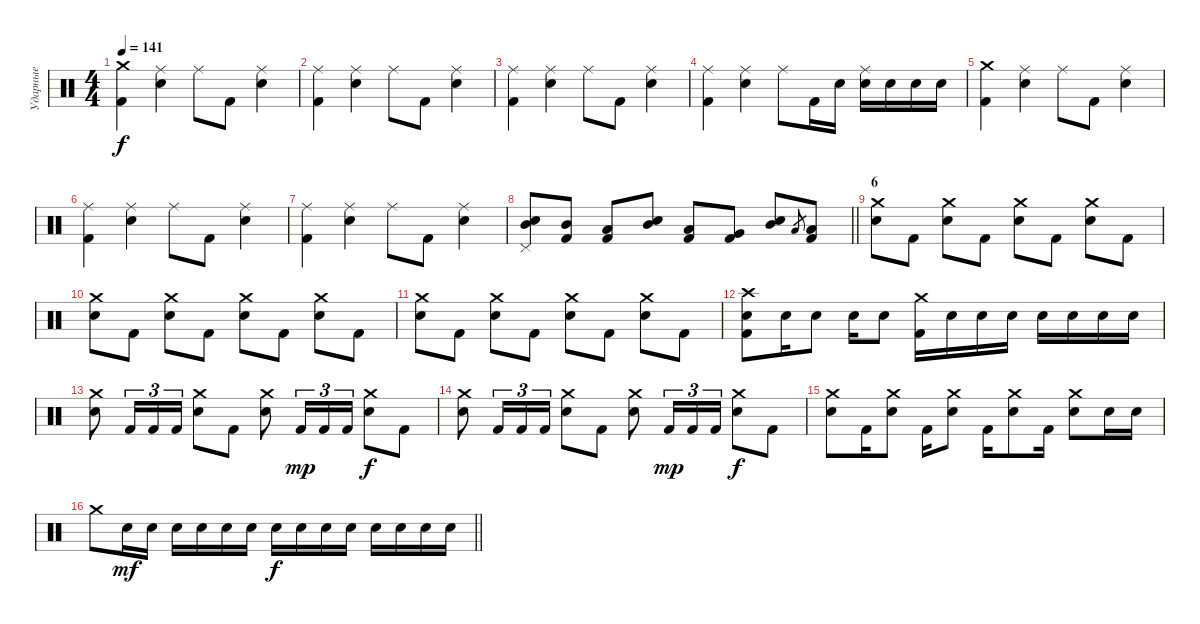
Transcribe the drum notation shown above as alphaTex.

\track ("Ударные" "Ударные") {instrument percussion}
\staff {score}
\articulation defaults
\ts (4 4)
\tempo 141
\clef neutral
\ks c
("Crash medium (hit)" "Kick (hit) 2").4{dy f} ("Ride (middle)" "Snare (hit) 2").4 "Ride (middle)".8 "Kick (hit) 2".8 ("Ride (middle)" "Snare (hit) 2").4 |
("Ride (middle)" "Kick (hit) 2").4 ("Ride (middle)" "Snare (hit) 2").4 "Ride (middle)".8 "Kick (hit) 2".8 ("Ride (middle)" "Snare (hit) 2").4 |
("Ride (middle)" "Kick (hit) 2").4 ("Ride (middle)" "Snare (hit) 2").4 "Ride (middle)".8 "Kick (hit) 2".8 ("Ride (middle)" "Snare (hit) 2").4 |
("Ride (middle)" "Kick (hit) 2").4 ("Ride (middle)" "Snare (hit) 2").4 "Ride (middle)".8 "Kick (hit) 2".16 "Snare (hit) 2".16 ("Ride (middle)" "Snare (hit) 2").16 "Snare (hit) 2".16 "Snare (hit) 2".16 "Snare (hit) 2".16 |
("Crash medium (hit)" "Kick (hit) 2").4 ("Ride (middle)" "Snare (hit) 2").4 "Ride (middle)".8 "Kick (hit) 2".8 ("Ride (middle)" "Snare (hit) 2").4 |
("Ride (middle)" "Kick (hit) 2").4 ("Ride (middle)" "Snare (hit) 2").4 "Ride (middle)".8 "Kick (hit) 2".8 ("Ride (middle)" "Snare (hit) 2").4 |
("Ride (middle)" "Kick (hit) 2").4 ("Ride (middle)" "Snare (hit) 2").4 "Ride (middle)".8 "Kick (hit) 2".8 ("Ride (middle)" "Snare (hit) 2").4 |
\barLineRight lightlight
("Pedal Hi-Hat (hit)" "Snare (hit) 2" "Mid Tom (hit)").8 ("Mid Tom (hit)" "Kick (hit) 2").8 ("Low Tom (hit)" "Kick (hit) 2").8 ("Snare (hit) 2" "Mid Tom (hit)").8 ("Low Tom (hit)" "Kick (hit) 2").8 ("Very Low Tom (hit)" "Kick (hit) 2").8 ("Snare (hit) 2" "Mid Tom (hit)").8 "Low Floor Tom (hit)".8{gr} ("Low Floor Tom (hit)" "Kick (hit) 2").8 |
\section ("" "6")
("Crash medium (hit)" "Snare (hit) 2").8 "Kick (hit) 2".8 ("Crash medium (hit)" "Snare (hit) 2").8 "Kick (hit) 2".8 ("Crash medium (hit)" "Snare (hit) 2").8 "Kick (hit) 2".8 ("Crash medium (hit)" "Snare (hit) 2").8 "Kick (hit) 2".8 |
("Crash medium (hit)" "Snare (hit) 2").8 "Kick (hit) 2".8 ("Crash medium (hit)" "Snare (hit) 2").8 "Kick (hit) 2".8 ("Crash medium (hit)" "Snare (hit) 2").8 "Kick (hit) 2".8 ("Crash medium (hit)" "Snare (hit) 2").8 "Kick (hit) 2".8 |
("Crash medium (hit)" "Snare (hit) 2").8 "Kick (hit) 2".8 ("Crash medium (hit)" "Snare (hit) 2").8 "Kick (hit) 2".8 ("Crash medium (hit)" "Snare (hit) 2").8 "Kick (hit) 2".8 ("Crash medium (hit)" "Snare (hit) 2").8 "Kick (hit) 2".8 |
("Crash high (hit)" "Snare (hit) 2" "Kick (hit) 2").8 "Snare (hit) 2".16 "Snare (hit) 2".8 "Snare (hit) 2".16 "Snare (hit) 2".8 ("Crash medium (hit)" "Kick (hit) 2").16 "Snare (hit) 2".16 "Snare (hit) 2".16 "Snare (hit) 2".16 "Snare (hit) 2".16 "Snare (hit) 2".16 "Snare (hit) 2".16 "Snare (hit) 2".16 |
("Crash medium (hit)" "Snare (hit) 2").8 "Kick (hit) 2".16{tu (3 2)} "Kick (hit) 2".16{tu (3 2)} "Kick (hit) 2".16{tu (3 2)} ("Crash medium (hit)" "Snare (hit) 2").8 "Kick (hit) 2".8 ("Crash medium (hit)" "Snare (hit) 2").8 "Kick (hit) 2".16{tu (3 2) dy mp} "Kick (hit) 2".16{tu (3 2)} "Kick (hit) 2".16{tu (3 2)} ("Crash medium (hit)" "Snare (hit) 2").8{dy f} "Kick (hit) 2".8 |
("Crash medium (hit)" "Snare (hit) 2").8 "Kick (hit) 2".16{tu (3 2)} "Kick (hit) 2".16{tu (3 2)} "Kick (hit) 2".16{tu (3 2)} ("Crash medium (hit)" "Snare (hit) 2").8 "Kick (hit) 2".8 ("Crash medium (hit)" "Snare (hit) 2").8 "Kick (hit) 2".16{tu (3 2) dy mp} "Kick (hit) 2".16{tu (3 2)} "Kick (hit) 2".16{tu (3 2)} ("Crash medium (hit)" "Snare (hit) 2").8{dy f} "Kick (hit) 2".8 |
("Crash medium (hit)" "Snare (hit) 2").8 "Kick (hit) 2".16 ("Crash medium (hit)" "Snare (hit) 2").8 "Kick (hit) 2".16 ("Crash medium (hit)" "Snare (hit) 2").8 "Kick (hit) 2".16 ("Crash medium (hit)" "Snare (hit) 2").8 "Kick (hit) 2".16 ("Crash medium (hit)" "Snare (hit) 2").8 "Snare (hit) 2".16 "Snare (hit) 2".16 |
\barLineRight lightlight "Crash medium (hit)".8 "Snare (hit) 2".16{dy mf} "Snare (hit) 2".16 "Snare (hit) 2".16 "Snare (hit) 2".16 "Snare (hit) 2".16 "Snare (hit) 2".16 "Snare (hit) 2".16{dy f} "Snare (hit) 2".16 "Snare (hit) 2".16 "Snare (hit) 2".16 "Snare (hit) 2".16 "Snare (hit) 2".16 "Snare (hit) 2".16 "Snare (hit) 2".16
